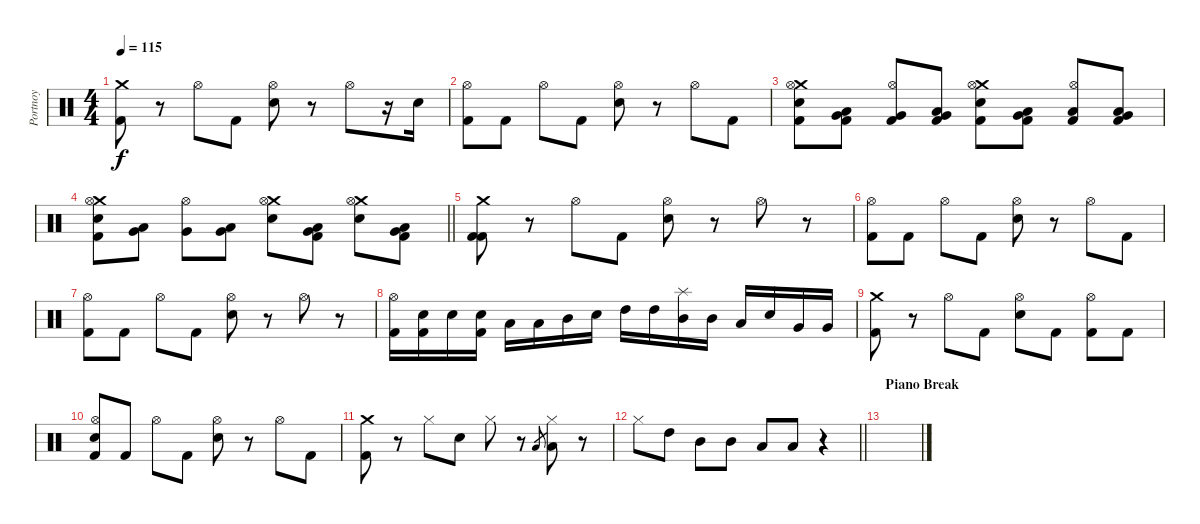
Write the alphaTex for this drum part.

\track ("Portnoy" "Portnoy") {instrument percussion}
\staff {score}
\articulation defaults
\ts (4 4)
\tempo 115
\clef neutral
\ks c
("Crash medium (hit)" "Kick (hit) 2").8{dy f} r.8 "Hi-Hat (open)".8 "Kick (hit) 2".8 ("Hi-Hat (open)" "Snare (hit) 2").8 r.8 "Hi-Hat (open)".8 r.16 "Snare (hit) 2".16 |
("Hi-Hat (open)" "Kick (hit) 2").8 "Kick (hit) 2".8 "Hi-Hat (open)".8 "Kick (hit) 2".8 ("Hi-Hat (open)" "Snare (hit) 2").8 r.8 "Hi-Hat (open)".8 "Kick (hit) 2".8 |
("Crash medium (hit)" "Hi-Hat (open)" "Snare (hit) 2" "Kick (hit) 2").8 ("Low Floor Tom (hit)" "Very Low Tom (hit)" "Kick (hit) 2").8 ("Hi-Hat (open)" "Very Low Tom (hit)" "Kick (hit) 2").8 ("Low Floor Tom (hit)" "Very Low Tom (hit)" "Kick (hit) 2").8 ("Crash medium (hit)" "Hi-Hat (open)" "Snare (hit) 2" "Kick (hit) 2").8 ("Very Low Tom (hit)" "Low Floor Tom (hit)" "Kick (hit) 2").8 ("Hi-Hat (open)" "Low Floor Tom (hit)" "Kick (hit) 2").8 ("Very Low Tom (hit)" "Low Floor Tom (hit)" "Kick (hit) 2").8 |
\barLineRight lightlight
("Crash medium (hit)" "Hi-Hat (open)" "Snare (hit) 2" "Kick (hit) 2").8 ("Low Floor Tom (hit)" "Very Low Tom (hit)").8 ("Hi-Hat (open)" "Very Low Tom (hit)").8 ("Low Floor Tom (hit)" "Very Low Tom (hit)").8 ("Crash medium (hit)" "Hi-Hat (open)" "Snare (hit) 2").8 ("Very Low Tom (hit)" "Low Floor Tom (hit)" "Kick (hit) 2").8 ("Crash medium (hit)" "Hi-Hat (open)" "Snare (hit) 2").8 ("Very Low Tom (hit)" "Low Floor Tom (hit)" "Kick (hit) 2").8 |
("Crash medium (hit)" "Kick (hit) 2" "Kick (hit) 2").8 r.8 "Hi-Hat (open)".8 "Kick (hit) 2".8 ("Hi-Hat (open)" "Snare (hit) 2").8 r.8 "Hi-Hat (open)".8 r.8 |
("Hi-Hat (open)" "Kick (hit) 2").8 "Kick (hit) 2".8 "Hi-Hat (open)".8 "Kick (hit) 2".8 ("Hi-Hat (open)" "Snare (hit) 2").8 r.8 "Hi-Hat (open)".8 "Kick (hit) 2".8 |
("Hi-Hat (open)" "Kick (hit) 2").8 "Kick (hit) 2".8 "Hi-Hat (open)".8 "Kick (hit) 2".8 ("Hi-Hat (open)" "Snare (hit) 2").8 r.8 "Hi-Hat (open)".8 r.8 |
("Hi-Hat (open)" "Kick (hit) 2").16 ("Snare (hit) 2" "Kick (hit) 2").16 "Snare (hit) 2".16 ("Snare (hit) 2" "Kick (hit) 2").16 "Low Tom (hit)".16 "Low Tom (hit)".16 "Mid Tom (hit)".16 "Snare (hit) 2".16 "High Tom (hit)".16 "High Tom (hit)".16 ("Splash (hit)" "Mid Tom (hit)").16 "Mid Tom (hit)".16 "Low Tom (hit)".16 "Snare (hit) 2".16 "Very Low Tom (hit)".16 "Very Low Tom (hit)".16 |
("Crash medium (hit)" "Kick (hit) 2").8 r.8 "Hi-Hat (open)".8 "Kick (hit) 2".8 ("Hi-Hat (open)" "Snare (hit) 2").8 "Kick (hit) 2".8 ("Hi-Hat (open)" "Kick (hit) 2").8 "Kick (hit) 2".8 |
("Hi-Hat (open)" "Snare (hit) 2" "Kick (hit) 2").8 "Kick (hit) 2".8 "Hi-Hat (open)".8 "Kick (hit) 2".8 ("Hi-Hat (open)" "Snare (hit) 2").8 r.8 "Hi-Hat (open)".8 "Kick (hit) 2".8 |
("Crash medium (hit)" "Kick (hit) 2").8 r.8 "Hi-Hat (closed)".8 "Snare (hit) 2".8 "Hi-Hat (closed)".8 r.8 "Low Tom (hit)".8{gr} ("Hi-Hat (closed)" "Low Tom (hit)").8 r.8 |
\barLineRight lightlight "Hi-Hat (closed)".8 "High Tom (hit)".8 "Mid Tom (hit)".8 "Mid Tom (hit)".8 "Low Floor Tom (hit)".8 "Low Floor Tom (hit)".8
r.4 |
\section ("" "Piano Break")
